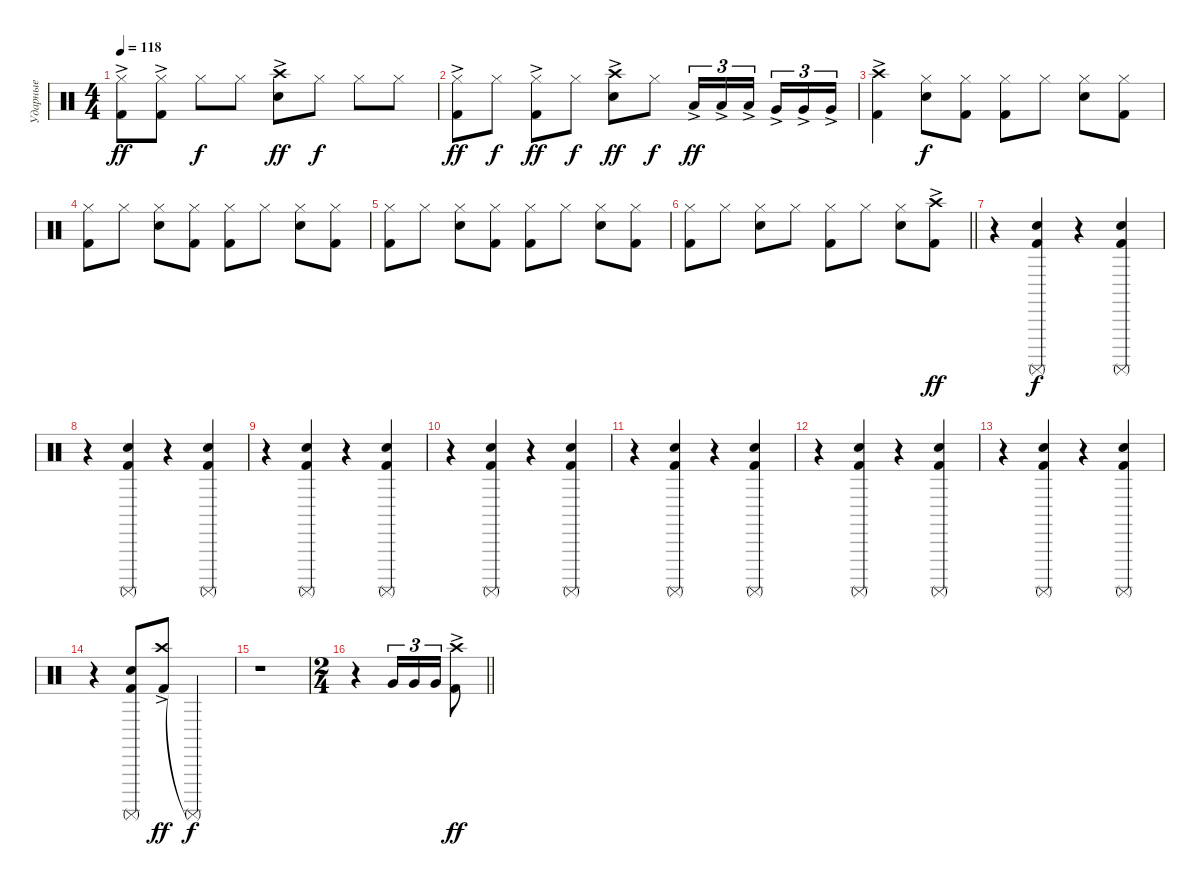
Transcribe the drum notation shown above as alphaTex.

\track ("Ударные" "Ударные") {instrument percussion}
\staff
\articulation defaults
\ts (4 4)
\tempo 118
\clef neutral
\ks c
("Kick (hit) 2"{ac} "Hi-Hat (closed)").8{dy ff} ("Kick (hit) 2"{ac} "Hi-Hat (closed)").8 "Hi-Hat (closed)".8{dy f} "Hi-Hat (closed)".8 ("Snare (hit) 2" "Crash high (hit)"{ac}).8{dy ff} "Hi-Hat (closed)".8{dy f} "Hi-Hat (closed)".8 "Hi-Hat (closed)".8 |
("Kick (hit) 2"{ac} "Hi-Hat (closed)").8{dy ff} "Hi-Hat (closed)".8{dy f} ("Kick (hit) 2"{ac} "Hi-Hat (closed)").8{dy ff} "Hi-Hat (closed)".8{dy f} ("Snare (hit) 2" "Crash high (hit)"{ac}).8{dy ff} "Hi-Hat (closed)".8{dy f} "Low Tom (hit)"{ac}.16{tu (3 2) dy ff} "Low Tom (hit)"{ac}.16{tu (3 2)} "Low Tom (hit)"{ac}.16{tu (3 2) beam splitsecondary} "Very Low Tom (hit)"{ac}.16{tu (3 2)} "Very Low Tom (hit)"{ac}.16{tu (3 2)} "Very Low Tom (hit)"{ac}.16{tu (3 2)} |
("Kick (hit) 2" "Crash high (hit)"{ac}).4 ("Snare (hit) 2" "Hi-Hat (closed)").8{dy f} ("Kick (hit) 2" "Hi-Hat (closed)").8 ("Kick (hit) 2" "Hi-Hat (closed)").8 "Hi-Hat (closed)".8 ("Snare (hit) 2" "Hi-Hat (closed)").8 ("Kick (hit) 2" "Hi-Hat (closed)").8 |
("Kick (hit) 2" "Hi-Hat (closed)").8 "Hi-Hat (closed)".8 ("Snare (hit) 2" "Hi-Hat (closed)").8 ("Kick (hit) 2" "Hi-Hat (closed)").8 ("Kick (hit) 2" "Hi-Hat (closed)").8 "Hi-Hat (closed)".8 ("Snare (hit) 2" "Hi-Hat (closed)").8 ("Kick (hit) 2" "Hi-Hat (closed)").8 |
("Kick (hit) 2" "Hi-Hat (closed)").8 "Hi-Hat (closed)".8 ("Snare (hit) 2" "Hi-Hat (closed)").8 ("Kick (hit) 2" "Hi-Hat (closed)").8 ("Kick (hit) 2" "Hi-Hat (closed)").8 "Hi-Hat (closed)".8 ("Snare (hit) 2" "Hi-Hat (closed)").8 ("Kick (hit) 2" "Hi-Hat (closed)").8 |
\barLineRight lightlight
("Kick (hit) 2" "Hi-Hat (closed)").8 "Hi-Hat (closed)".8 ("Snare (hit) 2" "Hi-Hat (closed)").8 "Hi-Hat (closed)".8 ("Kick (hit) 2" "Hi-Hat (closed)").8 "Hi-Hat (closed)".8 ("Snare (hit) 2" "Hi-Hat (closed)").8 ("Kick (hit) 2" "Crash high (hit)"{ac}).8{dy ff} |
r.4 ("Kick (hit) 2" "Snare (hit) 2" "Surdo (mute)").4{dy f} r.4 ("Kick (hit) 2" "Snare (hit) 2" "Surdo (mute)").4 |
r.4 ("Kick (hit) 2" "Snare (hit) 2" "Surdo (mute)").4 r.4 ("Kick (hit) 2" "Snare (hit) 2" "Surdo (mute)").4 |
r.4 ("Kick (hit) 2" "Snare (hit) 2" "Surdo (mute)").4 r.4 ("Kick (hit) 2" "Snare (hit) 2" "Surdo (mute)").4 |
r.4 ("Kick (hit) 2" "Snare (hit) 2" "Surdo (mute)").4 r.4 ("Kick (hit) 2" "Snare (hit) 2" "Surdo (mute)").4 |
r.4 ("Kick (hit) 2" "Snare (hit) 2" "Surdo (mute)").4 r.4 ("Kick (hit) 2" "Snare (hit) 2" "Surdo (mute)").4 |
r.4 ("Kick (hit) 2" "Snare (hit) 2" "Surdo (mute)").4 r.4 ("Kick (hit) 2" "Snare (hit) 2" "Surdo (mute)").4 |
r.4 ("Kick (hit) 2" "Snare (hit) 2" "Surdo (mute)").4 r.4 ("Kick (hit) 2" "Snare (hit) 2" "Surdo (mute)").4 |
r.4 ("Kick (hit) 2" "Snare (hit) 2" "Surdo (mute)").8 ("Kick (hit) 2" "Crash high (hit)"{ac}).8{dy ff} "Surdo (mute)"{t}.2{dy f} |
r.1 |
\ts (2 4)
\barLineRight lightlight
r.4 "Very Low Tom (hit)".16{tu (3 2)} "Very Low Tom (hit)".16{tu (3 2)} "Very Low Tom (hit)".16{tu (3 2)} ("Kick (hit) 2" "Crash high (hit)"{ac}).8{dy ff}
